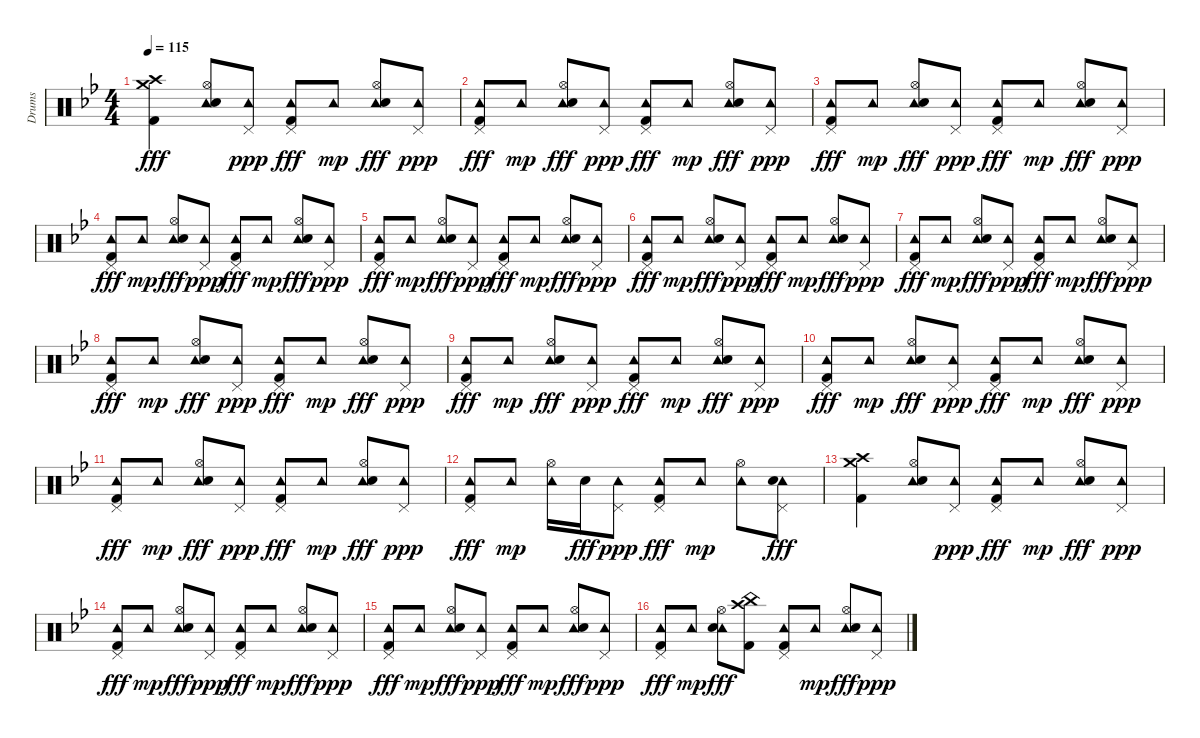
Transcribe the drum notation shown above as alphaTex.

\track ("Drums" "Drums") {instrument percussion}
\staff {score}
\articulation defaults
\ts (4 4)
\tempo 115
\clef neutral
\ks bb
("Crash high (hit)" "Crash medium (hit)" "Kick (hit) 2").4{dy fff} ("Tambourine (hit)" "Hi-Hat (open)" "Electric Snare (hit)").8 ("Tambourine (hit)" "Pedal Hi-Hat (hit)").8{dy ppp} ("Tambourine (hit)" "Pedal Hi-Hat (hit)" "Kick (hit) 2").8{dy fff} "Tambourine (hit)".8{dy mp} ("Tambourine (hit)" "Hi-Hat (open)" "Electric Snare (hit)").8{dy fff} ("Tambourine (hit)" "Pedal Hi-Hat (hit)").8{dy ppp} |
("Tambourine (hit)" "Pedal Hi-Hat (hit)" "Kick (hit) 2").8{dy fff} "Tambourine (hit)".8{dy mp} ("Tambourine (hit)" "Hi-Hat (open)" "Electric Snare (hit)").8{dy fff} ("Tambourine (hit)" "Pedal Hi-Hat (hit)").8{dy ppp} ("Tambourine (hit)" "Pedal Hi-Hat (hit)" "Kick (hit) 2").8{dy fff} "Tambourine (hit)".8{dy mp} ("Tambourine (hit)" "Hi-Hat (open)" "Electric Snare (hit)").8{dy fff} ("Tambourine (hit)" "Pedal Hi-Hat (hit)").8{dy ppp} |
("Tambourine (hit)" "Pedal Hi-Hat (hit)" "Kick (hit) 2").8{dy fff} "Tambourine (hit)".8{dy mp} ("Tambourine (hit)" "Hi-Hat (open)" "Electric Snare (hit)").8{dy fff} ("Tambourine (hit)" "Pedal Hi-Hat (hit)").8{dy ppp} ("Tambourine (hit)" "Pedal Hi-Hat (hit)" "Kick (hit) 2").8{dy fff} "Tambourine (hit)".8{dy mp} ("Tambourine (hit)" "Hi-Hat (open)" "Electric Snare (hit)").8{dy fff} ("Tambourine (hit)" "Pedal Hi-Hat (hit)").8{dy ppp} |
("Tambourine (hit)" "Pedal Hi-Hat (hit)" "Kick (hit) 2").8{dy fff} "Tambourine (hit)".8{dy mp} ("Tambourine (hit)" "Hi-Hat (open)" "Electric Snare (hit)").8{dy fff} ("Tambourine (hit)" "Pedal Hi-Hat (hit)").8{dy ppp} ("Tambourine (hit)" "Pedal Hi-Hat (hit)" "Kick (hit) 2").8{dy fff} "Tambourine (hit)".8{dy mp} ("Tambourine (hit)" "Hi-Hat (open)" "Electric Snare (hit)").8{dy fff} ("Tambourine (hit)" "Pedal Hi-Hat (hit)").8{dy ppp} |
("Tambourine (hit)" "Pedal Hi-Hat (hit)" "Kick (hit) 2").8{dy fff} "Tambourine (hit)".8{dy mp} ("Tambourine (hit)" "Hi-Hat (open)" "Electric Snare (hit)").8{dy fff} ("Tambourine (hit)" "Pedal Hi-Hat (hit)").8{dy ppp} ("Tambourine (hit)" "Pedal Hi-Hat (hit)" "Kick (hit) 2").8{dy fff} "Tambourine (hit)".8{dy mp} ("Tambourine (hit)" "Hi-Hat (open)" "Electric Snare (hit)").8{dy fff} ("Tambourine (hit)" "Pedal Hi-Hat (hit)").8{dy ppp} |
("Tambourine (hit)" "Pedal Hi-Hat (hit)" "Kick (hit) 2").8{dy fff} "Tambourine (hit)".8{dy mp} ("Tambourine (hit)" "Hi-Hat (open)" "Electric Snare (hit)").8{dy fff} ("Tambourine (hit)" "Pedal Hi-Hat (hit)").8{dy ppp} ("Tambourine (hit)" "Pedal Hi-Hat (hit)" "Kick (hit) 2").8{dy fff} "Tambourine (hit)".8{dy mp} ("Tambourine (hit)" "Hi-Hat (open)" "Electric Snare (hit)").8{dy fff} ("Tambourine (hit)" "Pedal Hi-Hat (hit)").8{dy ppp} |
("Tambourine (hit)" "Pedal Hi-Hat (hit)" "Kick (hit) 2").8{dy fff} "Tambourine (hit)".8{dy mp} ("Tambourine (hit)" "Hi-Hat (open)" "Electric Snare (hit)").8{dy fff} ("Tambourine (hit)" "Pedal Hi-Hat (hit)").8{dy ppp} ("Tambourine (hit)" "Pedal Hi-Hat (hit)" "Kick (hit) 2").8{dy fff} "Tambourine (hit)".8{dy mp} ("Tambourine (hit)" "Hi-Hat (open)" "Electric Snare (hit)").8{dy fff} ("Tambourine (hit)" "Pedal Hi-Hat (hit)").8{dy ppp} |
("Tambourine (hit)" "Pedal Hi-Hat (hit)" "Kick (hit) 2").8{dy fff} "Tambourine (hit)".8{dy mp} ("Tambourine (hit)" "Hi-Hat (open)" "Electric Snare (hit)").8{dy fff} ("Tambourine (hit)" "Pedal Hi-Hat (hit)").8{dy ppp} ("Tambourine (hit)" "Pedal Hi-Hat (hit)" "Kick (hit) 2").8{dy fff} "Tambourine (hit)".8{dy mp} ("Tambourine (hit)" "Hi-Hat (open)" "Electric Snare (hit)").8{dy fff} ("Tambourine (hit)" "Pedal Hi-Hat (hit)").8{dy ppp} |
("Tambourine (hit)" "Pedal Hi-Hat (hit)" "Kick (hit) 2").8{dy fff} "Tambourine (hit)".8{dy mp} ("Tambourine (hit)" "Hi-Hat (open)" "Electric Snare (hit)").8{dy fff} ("Tambourine (hit)" "Pedal Hi-Hat (hit)").8{dy ppp} ("Tambourine (hit)" "Pedal Hi-Hat (hit)" "Kick (hit) 2").8{dy fff} "Tambourine (hit)".8{dy mp} ("Tambourine (hit)" "Hi-Hat (open)" "Electric Snare (hit)").8{dy fff} ("Tambourine (hit)" "Pedal Hi-Hat (hit)").8{dy ppp} |
("Tambourine (hit)" "Pedal Hi-Hat (hit)" "Kick (hit) 2").8{dy fff} "Tambourine (hit)".8{dy mp} ("Tambourine (hit)" "Hi-Hat (open)" "Electric Snare (hit)").8{dy fff} ("Tambourine (hit)" "Pedal Hi-Hat (hit)").8{dy ppp} ("Tambourine (hit)" "Pedal Hi-Hat (hit)" "Kick (hit) 2").8{dy fff} "Tambourine (hit)".8{dy mp} ("Tambourine (hit)" "Hi-Hat (open)" "Electric Snare (hit)").8{dy fff} ("Tambourine (hit)" "Pedal Hi-Hat (hit)").8{dy ppp} |
("Tambourine (hit)" "Pedal Hi-Hat (hit)" "Kick (hit) 2").8{dy fff} "Tambourine (hit)".8{dy mp} ("Tambourine (hit)" "Hi-Hat (open)" "Electric Snare (hit)").8{dy fff} ("Tambourine (hit)" "Pedal Hi-Hat (hit)").8{dy ppp} ("Tambourine (hit)" "Pedal Hi-Hat (hit)" "Kick (hit) 2").8{dy fff} "Tambourine (hit)".8{dy mp} ("Tambourine (hit)" "Hi-Hat (open)" "Electric Snare (hit)").8{dy fff} ("Tambourine (hit)" "Pedal Hi-Hat (hit)").8{dy ppp} |
("Tambourine (hit)" "Pedal Hi-Hat (hit)" "Kick (hit) 2").8{dy fff} "Tambourine (hit)".8{dy mp} ("Tambourine (hit)" "Hi-Hat (open)").16 "Electric Snare (hit)".16{dy fff} ("Tambourine (hit)" "Pedal Hi-Hat (hit)").8{dy ppp} ("Tambourine (hit)" "Pedal Hi-Hat (hit)" "Kick (hit) 2").8{dy fff} "Tambourine (hit)".8{dy mp} ("Tambourine (hit)" "Hi-Hat (open)").8 ("Tambourine (hit)" "Pedal Hi-Hat (hit)" "Electric Snare (hit)").8{dy fff} |
("Crash high (hit)" "Crash medium (hit)" "Kick (hit) 2").4 ("Tambourine (hit)" "Hi-Hat (open)" "Electric Snare (hit)").8 ("Tambourine (hit)" "Pedal Hi-Hat (hit)").8{dy ppp} ("Tambourine (hit)" "Pedal Hi-Hat (hit)" "Kick (hit) 2").8{dy fff} "Tambourine (hit)".8{dy mp} ("Tambourine (hit)" "Hi-Hat (open)" "Electric Snare (hit)").8{dy fff} ("Tambourine (hit)" "Pedal Hi-Hat (hit)").8{dy ppp} |
("Tambourine (hit)" "Pedal Hi-Hat (hit)" "Kick (hit) 2").8{dy fff} "Tambourine (hit)".8{dy mp} ("Tambourine (hit)" "Hi-Hat (open)" "Electric Snare (hit)").8{dy fff} ("Tambourine (hit)" "Pedal Hi-Hat (hit)").8{dy ppp} ("Tambourine (hit)" "Pedal Hi-Hat (hit)" "Kick (hit) 2").8{dy fff} "Tambourine (hit)".8{dy mp} ("Tambourine (hit)" "Hi-Hat (open)" "Electric Snare (hit)").8{dy fff} ("Tambourine (hit)" "Pedal Hi-Hat (hit)").8{dy ppp} |
("Tambourine (hit)" "Pedal Hi-Hat (hit)" "Kick (hit) 2").8{dy fff} "Tambourine (hit)".8{dy mp} ("Tambourine (hit)" "Hi-Hat (open)" "Electric Snare (hit)").8{dy fff} ("Tambourine (hit)" "Pedal Hi-Hat (hit)").8{dy ppp} ("Tambourine (hit)" "Pedal Hi-Hat (hit)" "Kick (hit) 2").8{dy fff} "Tambourine (hit)".8{dy mp} ("Tambourine (hit)" "Hi-Hat (open)" "Electric Snare (hit)").8{dy fff} ("Tambourine (hit)" "Pedal Hi-Hat (hit)").8{dy ppp} |
("Tambourine (hit)" "Pedal Hi-Hat (hit)" "Kick (hit) 2").8{dy fff} "Tambourine (hit)".8{dy mp} ("Tambourine (hit)" "Hi-Hat (open)" "Electric Snare (hit)").8{dy fff} ("China (hit)" "Crash high (hit)" "Kick (hit) 2").8 ("Tambourine (hit)" "Pedal Hi-Hat (hit)" "Kick (hit) 2").8 "Tambourine (hit)".8{dy mp} ("Tambourine (hit)" "Hi-Hat (open)" "Electric Snare (hit)").8{dy fff} ("Tambourine (hit)" "Pedal Hi-Hat (hit)").8{dy ppp}
